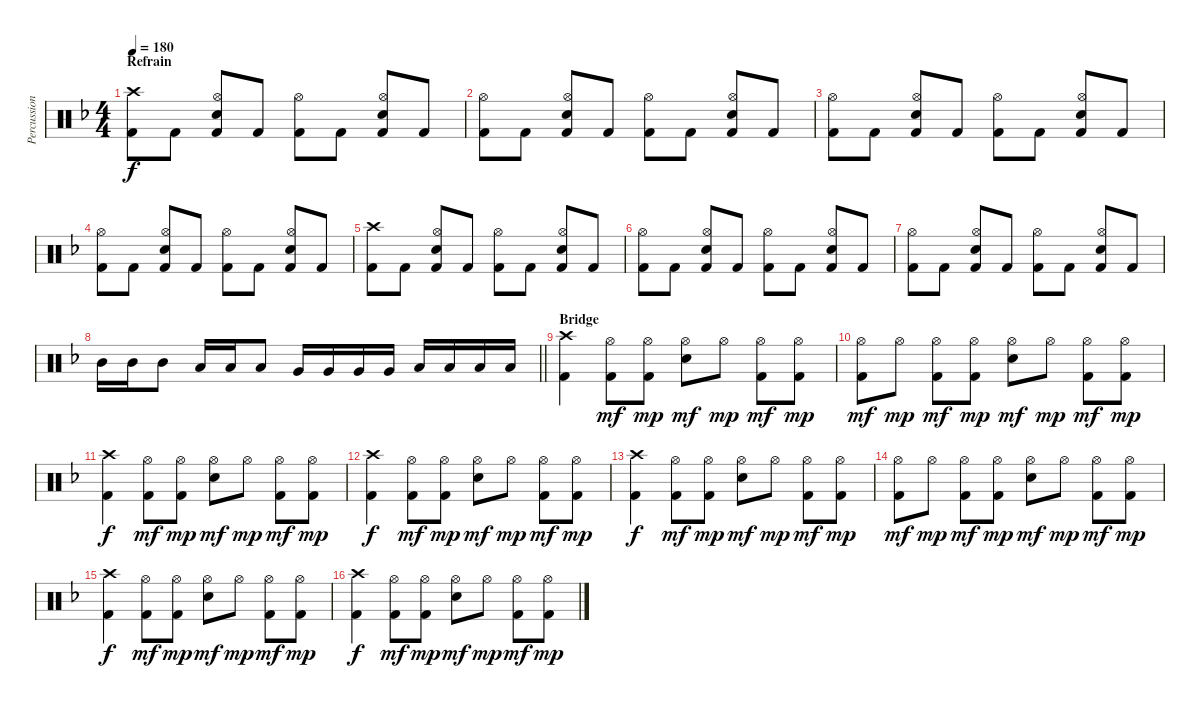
\track ("Percussion" "Percussion") {instrument percussion}
\staff {score}
\articulation defaults
\ts (4 4)
\section ("" "Refrain")
\tempo 180
\clef neutral
\ks dminor
("Crash high (hit)" "Kick (hit) 2").8{dy f} "Kick (hit) 2".8 ("Hi-Hat (open)" "Snare (hit) 2" "Kick (hit) 2").8 "Kick (hit) 2".8 ("Hi-Hat (open)" "Kick (hit) 2").8 "Kick (hit) 2".8 ("Hi-Hat (open)" "Snare (hit) 2" "Kick (hit) 2").8 "Kick (hit) 2".8 |
("Hi-Hat (open)" "Kick (hit) 2").8 "Kick (hit) 2".8 ("Hi-Hat (open)" "Snare (hit) 2" "Kick (hit) 2").8 "Kick (hit) 2".8 ("Hi-Hat (open)" "Kick (hit) 2").8 "Kick (hit) 2".8 ("Hi-Hat (open)" "Snare (hit) 2" "Kick (hit) 2").8 "Kick (hit) 2".8 |
("Hi-Hat (open)" "Kick (hit) 2").8 "Kick (hit) 2".8 ("Hi-Hat (open)" "Snare (hit) 2" "Kick (hit) 2").8 "Kick (hit) 2".8 ("Hi-Hat (open)" "Kick (hit) 2").8 "Kick (hit) 2".8 ("Hi-Hat (open)" "Snare (hit) 2" "Kick (hit) 2").8 "Kick (hit) 2".8 |
("Hi-Hat (open)" "Kick (hit) 2").8 "Kick (hit) 2".8 ("Hi-Hat (open)" "Snare (hit) 2" "Kick (hit) 2").8 "Kick (hit) 2".8 ("Hi-Hat (open)" "Kick (hit) 2").8 "Kick (hit) 2".8 ("Hi-Hat (open)" "Snare (hit) 2" "Kick (hit) 2").8 "Kick (hit) 2".8 |
("Crash high (hit)" "Kick (hit) 2").8 "Kick (hit) 2".8 ("Hi-Hat (open)" "Snare (hit) 2" "Kick (hit) 2").8 "Kick (hit) 2".8 ("Hi-Hat (open)" "Kick (hit) 2").8 "Kick (hit) 2".8 ("Hi-Hat (open)" "Snare (hit) 2" "Kick (hit) 2").8 "Kick (hit) 2".8 |
("Hi-Hat (open)" "Kick (hit) 2").8 "Kick (hit) 2".8 ("Hi-Hat (open)" "Snare (hit) 2" "Kick (hit) 2").8 "Kick (hit) 2".8 ("Hi-Hat (open)" "Kick (hit) 2").8 "Kick (hit) 2".8 ("Hi-Hat (open)" "Snare (hit) 2" "Kick (hit) 2").8 "Kick (hit) 2".8 |
("Hi-Hat (open)" "Kick (hit) 2").8 "Kick (hit) 2".8 ("Hi-Hat (open)" "Snare (hit) 2" "Kick (hit) 2").8 "Kick (hit) 2".8 ("Hi-Hat (open)" "Kick (hit) 2").8 "Kick (hit) 2".8 ("Hi-Hat (open)" "Snare (hit) 2" "Kick (hit) 2").8 "Kick (hit) 2".8 |
\barLineRight lightlight "Mid Tom (hit)".16 "Mid Tom (hit)".16 "Mid Tom (hit)".8 "Low Tom (hit)".16 "Low Tom (hit)".16 "Low Tom (hit)".8 "Very Low Tom (hit)".16 "Very Low Tom (hit)".16 "Very Low Tom (hit)".16 "Very Low Tom (hit)".16 "Low Floor Tom (hit)".16 "Low Floor Tom (hit)".16 "Low Floor Tom (hit)".16 "Low Floor Tom (hit)".16
|
\section ("" "Bridge")
("Crash high (hit)" "Kick (hit) 2").4 ("Hi-Hat (open)" "Kick (hit) 2").8{dy mf} ("Hi-Hat (open)" "Kick (hit) 2").8{dy mp} ("Hi-Hat (open)" "Snare (hit) 2").8{dy mf} "Hi-Hat (open)".8{dy mp} ("Hi-Hat (open)" "Kick (hit) 2").8{dy mf} ("Hi-Hat (open)" "Kick (hit) 2").8{dy mp} |
("Hi-Hat (open)" "Kick (hit) 2").8{dy mf} "Hi-Hat (open)".8{dy mp} ("Hi-Hat (open)" "Kick (hit) 2").8{dy mf} ("Hi-Hat (open)" "Kick (hit) 2").8{dy mp} ("Hi-Hat (open)" "Snare (hit) 2").8{dy mf} "Hi-Hat (open)".8{dy mp} ("Hi-Hat (open)" "Kick (hit) 2").8{dy mf} ("Hi-Hat (open)" "Kick (hit) 2").8{dy mp} |
("Crash high (hit)" "Kick (hit) 2").4{dy f} ("Hi-Hat (open)" "Kick (hit) 2").8{dy mf} ("Hi-Hat (open)" "Kick (hit) 2").8{dy mp} ("Hi-Hat (open)" "Snare (hit) 2").8{dy mf} "Hi-Hat (open)".8{dy mp} ("Hi-Hat (open)" "Kick (hit) 2").8{dy mf} ("Hi-Hat (open)" "Kick (hit) 2").8{dy mp} |
("Crash high (hit)" "Kick (hit) 2").4{dy f} ("Hi-Hat (open)" "Kick (hit) 2").8{dy mf} ("Hi-Hat (open)" "Kick (hit) 2").8{dy mp} ("Hi-Hat (open)" "Snare (hit) 2").8{dy mf} "Hi-Hat (open)".8{dy mp} ("Hi-Hat (open)" "Kick (hit) 2").8{dy mf} ("Hi-Hat (open)" "Kick (hit) 2").8{dy mp} |
("Crash high (hit)" "Kick (hit) 2").4{dy f} ("Hi-Hat (open)" "Kick (hit) 2").8{dy mf} ("Hi-Hat (open)" "Kick (hit) 2").8{dy mp} ("Hi-Hat (open)" "Snare (hit) 2").8{dy mf} "Hi-Hat (open)".8{dy mp} ("Hi-Hat (open)" "Kick (hit) 2").8{dy mf} ("Hi-Hat (open)" "Kick (hit) 2").8{dy mp} |
("Hi-Hat (open)" "Kick (hit) 2").8{dy mf} "Hi-Hat (open)".8{dy mp} ("Hi-Hat (open)" "Kick (hit) 2").8{dy mf} ("Hi-Hat (open)" "Kick (hit) 2").8{dy mp} ("Hi-Hat (open)" "Snare (hit) 2").8{dy mf} "Hi-Hat (open)".8{dy mp} ("Hi-Hat (open)" "Kick (hit) 2").8{dy mf} ("Hi-Hat (open)" "Kick (hit) 2").8{dy mp} |
("Crash high (hit)" "Kick (hit) 2").4{dy f} ("Hi-Hat (open)" "Kick (hit) 2").8{dy mf} ("Hi-Hat (open)" "Kick (hit) 2").8{dy mp} ("Hi-Hat (open)" "Snare (hit) 2").8{dy mf} "Hi-Hat (open)".8{dy mp} ("Hi-Hat (open)" "Kick (hit) 2").8{dy mf} ("Hi-Hat (open)" "Kick (hit) 2").8{dy mp} |
("Crash high (hit)" "Kick (hit) 2").4{dy f} ("Hi-Hat (open)" "Kick (hit) 2").8{dy mf} ("Hi-Hat (open)" "Kick (hit) 2").8{dy mp} ("Hi-Hat (open)" "Snare (hit) 2").8{dy mf} "Hi-Hat (open)".8{dy mp} ("Hi-Hat (open)" "Kick (hit) 2").8{dy mf} ("Hi-Hat (open)" "Kick (hit) 2").8{dy mp}
